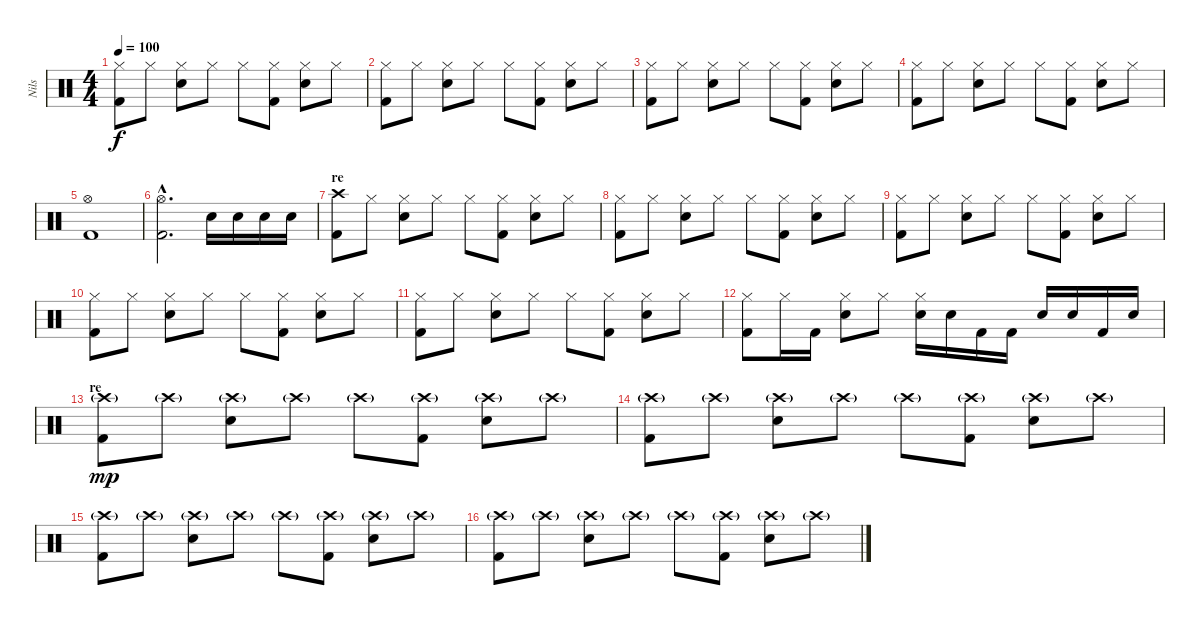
\track ("Nils" "Nils") {instrument percussion}
\staff {score}
\articulation defaults
\ts (4 4)
\tempo 100
\clef neutral
\ks c
("Hi-Hat (closed)" "Kick (hit) 2").8{dy f} "Hi-Hat (closed)".8 ("Hi-Hat (closed)" "Snare (hit) 2").8 "Hi-Hat (closed)".8 "Hi-Hat (closed)".8 ("Hi-Hat (closed)" "Kick (hit) 2").8 ("Hi-Hat (closed)" "Snare (hit) 2").8 "Hi-Hat (closed)".8 |
("Hi-Hat (closed)" "Kick (hit) 2").8 "Hi-Hat (closed)".8 ("Hi-Hat (closed)" "Snare (hit) 2").8 "Hi-Hat (closed)".8 "Hi-Hat (closed)".8 ("Hi-Hat (closed)" "Kick (hit) 2").8 ("Hi-Hat (closed)" "Snare (hit) 2").8 "Hi-Hat (closed)".8 |
("Hi-Hat (closed)" "Kick (hit) 2").8 "Hi-Hat (closed)".8 ("Hi-Hat (closed)" "Snare (hit) 2").8 "Hi-Hat (closed)".8 "Hi-Hat (closed)".8 ("Hi-Hat (closed)" "Kick (hit) 2").8 ("Hi-Hat (closed)" "Snare (hit) 2").8 "Hi-Hat (closed)".8 |
("Hi-Hat (closed)" "Kick (hit) 2").8 "Hi-Hat (closed)".8 ("Hi-Hat (closed)" "Snare (hit) 2").8 "Hi-Hat (closed)".8 "Hi-Hat (closed)".8 ("Hi-Hat (closed)" "Kick (hit) 2").8 ("Hi-Hat (closed)" "Snare (hit) 2").8 "Hi-Hat (closed)".8 |
("Hi-Hat (open)" "Kick (hit) 2").1 |
("Hi-Hat (open)"{hac} "Kick (hit) 2"{hac}).2{d} "Snare (hit) 2".16 "Snare (hit) 2".16 "Snare (hit) 2".16 "Snare (hit) 2".16 |
\section ("" "re")
("Crash high (hit)" "Kick (hit) 2").8 "Hi-Hat (closed)".8 ("Hi-Hat (closed)" "Snare (hit) 2").8 "Hi-Hat (closed)".8 "Hi-Hat (closed)".8 ("Hi-Hat (closed)" "Kick (hit) 2").8 ("Hi-Hat (closed)" "Snare (hit) 2").8 "Hi-Hat (closed)".8 |
("Hi-Hat (closed)" "Kick (hit) 2").8 "Hi-Hat (closed)".8 ("Hi-Hat (closed)" "Snare (hit) 2").8 "Hi-Hat (closed)".8 "Hi-Hat (closed)".8 ("Hi-Hat (closed)" "Kick (hit) 2").8 ("Hi-Hat (closed)" "Snare (hit) 2").8 "Hi-Hat (closed)".8 |
("Hi-Hat (closed)" "Kick (hit) 2").8 "Hi-Hat (closed)".8 ("Hi-Hat (closed)" "Snare (hit) 2").8 "Hi-Hat (closed)".8 "Hi-Hat (closed)".8 ("Hi-Hat (closed)" "Kick (hit) 2").8 ("Hi-Hat (closed)" "Snare (hit) 2").8 "Hi-Hat (closed)".8 |
("Hi-Hat (closed)" "Kick (hit) 2").8 "Hi-Hat (closed)".8 ("Hi-Hat (closed)" "Snare (hit) 2").8 "Hi-Hat (closed)".8 "Hi-Hat (closed)".8 ("Hi-Hat (closed)" "Kick (hit) 2").8 ("Hi-Hat (closed)" "Snare (hit) 2").8 "Hi-Hat (closed)".8 |
("Hi-Hat (closed)" "Kick (hit) 2").8 "Hi-Hat (closed)".8 ("Hi-Hat (closed)" "Snare (hit) 2").8 "Hi-Hat (closed)".8 "Hi-Hat (closed)".8 ("Hi-Hat (closed)" "Kick (hit) 2").8 ("Hi-Hat (closed)" "Snare (hit) 2").8 "Hi-Hat (closed)".8 |
("Hi-Hat (closed)" "Kick (hit) 2").8 "Hi-Hat (closed)".16 "Kick (hit) 2".16 ("Hi-Hat (closed)" "Snare (hit) 2").8 "Hi-Hat (closed)".8 ("Hi-Hat (closed)" "Snare (hit) 2").16 "Snare (hit) 2".16 "Kick (hit) 2".16 "Kick (hit) 2".16 "Snare (hit) 2".16 "Snare (hit) 2".16 "Kick (hit) 2".16 "Snare (hit) 2".16 |
\section ("" "re")
("Crash high (hit)"{g} "Kick (hit) 2").8{dy mp} "Crash high (hit)"{g}.8 ("Crash high (hit)"{g} "Snare (hit) 2").8 "Crash high (hit)"{g}.8 "Crash high (hit)"{g}.8 ("Crash high (hit)"{g} "Kick (hit) 2").8 ("Crash high (hit)"{g} "Snare (hit) 2").8 "Crash high (hit)"{g}.8 |
("Crash high (hit)"{g} "Kick (hit) 2").8 "Crash high (hit)"{g}.8 ("Crash high (hit)"{g} "Snare (hit) 2").8 "Crash high (hit)"{g}.8 "Crash high (hit)"{g}.8 ("Crash high (hit)"{g} "Kick (hit) 2").8 ("Crash high (hit)"{g} "Snare (hit) 2").8 "Crash high (hit)"{g}.8 |
("Crash high (hit)"{g} "Kick (hit) 2").8 "Crash high (hit)"{g}.8 ("Crash high (hit)"{g} "Snare (hit) 2").8 "Crash high (hit)"{g}.8 "Crash high (hit)"{g}.8 ("Crash high (hit)"{g} "Kick (hit) 2").8 ("Crash high (hit)"{g} "Snare (hit) 2").8 "Crash high (hit)"{g}.8 |
("Crash high (hit)"{g} "Kick (hit) 2").8 "Crash high (hit)"{g}.8 ("Crash high (hit)"{g} "Snare (hit) 2").8 "Crash high (hit)"{g}.8 "Crash high (hit)"{g}.8 ("Crash high (hit)"{g} "Kick (hit) 2").8 ("Crash high (hit)"{g} "Snare (hit) 2").8 "Crash high (hit)"{g}.8
